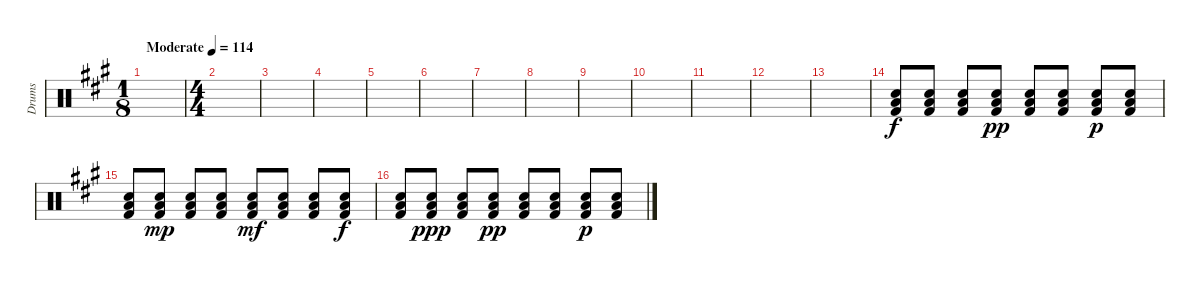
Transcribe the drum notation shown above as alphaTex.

\track ("Drums" "Drums") {instrument percussion}
\staff {score}
\articulation defaults
\ts (1 8)
\tempo (114 "Moderate")
\clef neutral
\ks a
|
\ts (4 4)
|
|
|
|
|
|
|
|
|
|
|
|
("Low Floor Tom (hit)" "Snare (hit) 2" "Kick (hit) 2").8 ("Low Floor Tom (hit)" "Snare (hit) 2" "Kick (hit) 2").8 ("Low Floor Tom (hit)" "Snare (hit) 2" "Kick (hit) 2").8 ("Low Floor Tom (hit)" "Snare (hit) 2" "Kick (hit) 2").8{dy pp} ("Low Floor Tom (hit)" "Snare (hit) 2" "Kick (hit) 2").8 ("Low Floor Tom (hit)" "Snare (hit) 2" "Kick (hit) 2").8 ("Low Floor Tom (hit)" "Snare (hit) 2" "Kick (hit) 2").8{dy p} ("Low Floor Tom (hit)" "Snare (hit) 2" "Kick (hit) 2").8 |
("Low Floor Tom (hit)" "Snare (hit) 2" "Kick (hit) 2").8 ("Low Floor Tom (hit)" "Snare (hit) 2" "Kick (hit) 2").8{dy mp} ("Low Floor Tom (hit)" "Snare (hit) 2" "Kick (hit) 2").8 ("Low Floor Tom (hit)" "Snare (hit) 2" "Kick (hit) 2").8 ("Low Floor Tom (hit)" "Snare (hit) 2" "Kick (hit) 2").8{dy mf} ("Low Floor Tom (hit)" "Snare (hit) 2" "Kick (hit) 2").8 ("Low Floor Tom (hit)" "Snare (hit) 2" "Kick (hit) 2").8 ("Low Floor Tom (hit)" "Snare (hit) 2" "Kick (hit) 2").8{dy f} |
("Low Floor Tom (hit)" "Snare (hit) 2" "Kick (hit) 2").8 ("Low Floor Tom (hit)" "Snare (hit) 2" "Kick (hit) 2").8{dy ppp} ("Low Floor Tom (hit)" "Snare (hit) 2" "Kick (hit) 2").8 ("Low Floor Tom (hit)" "Snare (hit) 2" "Kick (hit) 2").8{dy pp} ("Low Floor Tom (hit)" "Snare (hit) 2" "Kick (hit) 2").8 ("Low Floor Tom (hit)" "Snare (hit) 2" "Kick (hit) 2").8 ("Low Floor Tom (hit)" "Snare (hit) 2" "Kick (hit) 2").8{dy p} ("Low Floor Tom (hit)" "Snare (hit) 2" "Kick (hit) 2").8
